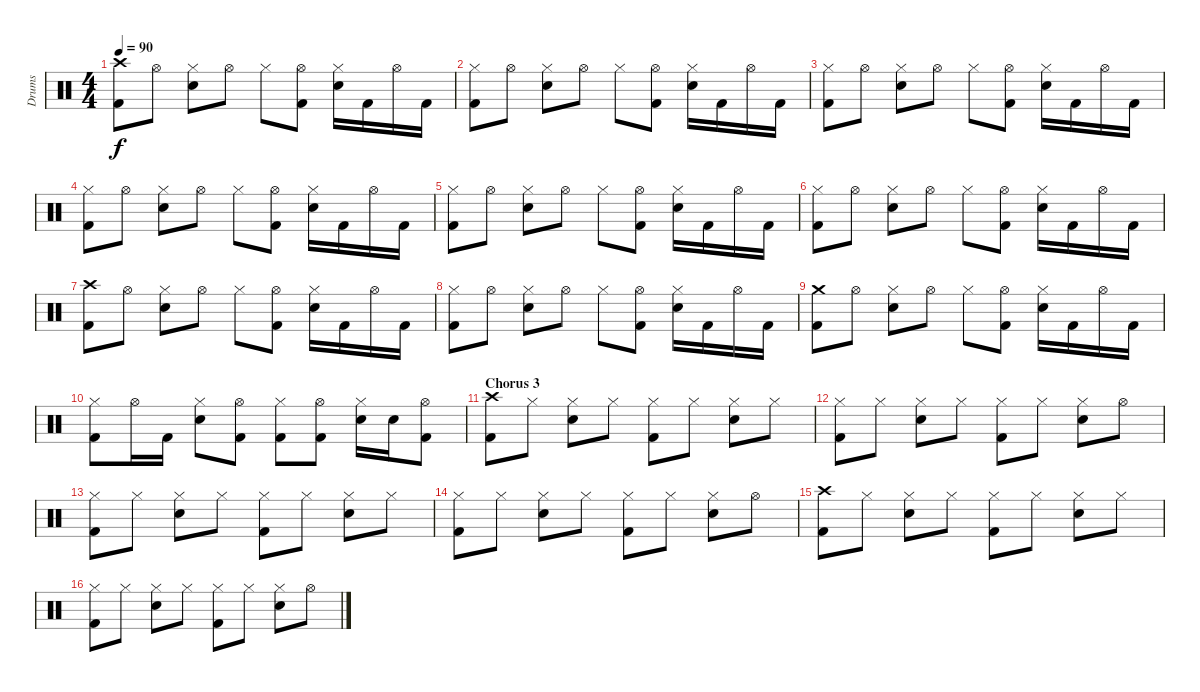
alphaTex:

\track ("Drums" "Drums") {instrument percussion}
\staff {score}
\articulation defaults
\ts (4 4)
\tempo 90
\clef neutral
\ks c
("Crash high (hit)" "Kick (hit) 2").8{dy f} "Hi-Hat (open)".8 ("Hi-Hat (closed)" "Electric Snare (hit)").8 "Hi-Hat (open)".8 "Hi-Hat (closed)".8 ("Hi-Hat (open)" "Kick (hit) 2").8 ("Hi-Hat (closed)" "Electric Snare (hit)").16 "Kick (hit) 2".16 "Hi-Hat (open)".16 "Kick (hit) 2".16 |
("Hi-Hat (closed)" "Kick (hit) 2").8 "Hi-Hat (open)".8 ("Hi-Hat (closed)" "Electric Snare (hit)").8 "Hi-Hat (open)".8 "Hi-Hat (closed)".8 ("Hi-Hat (open)" "Kick (hit) 2").8 ("Hi-Hat (closed)" "Electric Snare (hit)").16 "Kick (hit) 2".16 "Hi-Hat (open)".16 "Kick (hit) 2".16 |
("Hi-Hat (closed)" "Kick (hit) 2").8 "Hi-Hat (open)".8 ("Hi-Hat (closed)" "Electric Snare (hit)").8 "Hi-Hat (open)".8 "Hi-Hat (closed)".8 ("Hi-Hat (open)" "Kick (hit) 2").8 ("Hi-Hat (closed)" "Electric Snare (hit)").16 "Kick (hit) 2".16 "Hi-Hat (open)".16 "Kick (hit) 2".16 |
("Hi-Hat (closed)" "Kick (hit) 2").8 "Hi-Hat (open)".8 ("Hi-Hat (closed)" "Electric Snare (hit)").8 "Hi-Hat (open)".8 "Hi-Hat (closed)".8 ("Hi-Hat (open)" "Kick (hit) 2").8 ("Hi-Hat (closed)" "Electric Snare (hit)").16 "Kick (hit) 2".16 "Hi-Hat (open)".16 "Kick (hit) 2".16 |
("Hi-Hat (closed)" "Kick (hit) 2").8 "Hi-Hat (open)".8 ("Hi-Hat (closed)" "Electric Snare (hit)").8 "Hi-Hat (open)".8 "Hi-Hat (closed)".8 ("Hi-Hat (open)" "Kick (hit) 2").8 ("Hi-Hat (closed)" "Electric Snare (hit)").16 "Kick (hit) 2".16 "Hi-Hat (open)".16 "Kick (hit) 2".16 |
("Hi-Hat (closed)" "Kick (hit) 2").8 "Hi-Hat (open)".8 ("Hi-Hat (closed)" "Electric Snare (hit)").8 "Hi-Hat (open)".8 "Hi-Hat (closed)".8 ("Hi-Hat (open)" "Kick (hit) 2").8 ("Hi-Hat (closed)" "Electric Snare (hit)").16 "Kick (hit) 2".16 "Hi-Hat (open)".16 "Kick (hit) 2".16 |
("Crash high (hit)" "Kick (hit) 2").8 "Hi-Hat (open)".8 ("Hi-Hat (closed)" "Electric Snare (hit)").8 "Hi-Hat (open)".8 "Hi-Hat (closed)".8 ("Hi-Hat (open)" "Kick (hit) 2").8 ("Hi-Hat (closed)" "Electric Snare (hit)").16 "Kick (hit) 2".16 "Hi-Hat (open)".16 "Kick (hit) 2".16 |
("Hi-Hat (closed)" "Kick (hit) 2").8 "Hi-Hat (open)".8 ("Hi-Hat (closed)" "Electric Snare (hit)").8 "Hi-Hat (open)".8 "Hi-Hat (closed)".8 ("Hi-Hat (open)" "Kick (hit) 2").8 ("Hi-Hat (closed)" "Electric Snare (hit)").16 "Kick (hit) 2".16 "Hi-Hat (open)".16 "Kick (hit) 2".16 |
("Crash medium (hit)" "Kick (hit) 2").8 "Hi-Hat (open)".8 ("Hi-Hat (closed)" "Electric Snare (hit)").8 "Hi-Hat (open)".8 "Hi-Hat (closed)".8 ("Hi-Hat (open)" "Kick (hit) 2").8 ("Hi-Hat (closed)" "Electric Snare (hit)").16 "Kick (hit) 2".16 "Hi-Hat (open)".16 "Kick (hit) 2".16 |
("Hi-Hat (closed)" "Kick (hit) 2").8 "Hi-Hat (open)".16 "Kick (hit) 2".16 ("Hi-Hat (closed)" "Electric Snare (hit)").8 ("Hi-Hat (open)" "Kick (hit) 2").8 ("Hi-Hat (closed)" "Kick (hit) 2").8 ("Hi-Hat (open)" "Kick (hit) 2").8 ("Hi-Hat (closed)" "Electric Snare (hit)").16 "Electric Snare (hit)".16 ("Hi-Hat (open)" "Kick (hit) 2").8 |
\section ("" "Chorus 3")
("Crash high (hit)" "Kick (hit) 2").8 "Hi-Hat (closed)".8 ("Hi-Hat (closed)" "Electric Snare (hit)").8 "Hi-Hat (closed)".8 ("Hi-Hat (closed)" "Kick (hit) 2").8 "Hi-Hat (closed)".8 ("Hi-Hat (closed)" "Electric Snare (hit)").8 "Hi-Hat (closed)".8 |
("Hi-Hat (closed)" "Kick (hit) 2").8 "Hi-Hat (closed)".8 ("Hi-Hat (closed)" "Electric Snare (hit)").8 "Hi-Hat (closed)".8 ("Hi-Hat (closed)" "Kick (hit) 2").8 "Hi-Hat (closed)".8 ("Hi-Hat (closed)" "Electric Snare (hit)").8 "Hi-Hat (open)".8 |
("Hi-Hat (closed)" "Kick (hit) 2").8 "Hi-Hat (closed)".8 ("Hi-Hat (closed)" "Electric Snare (hit)").8 "Hi-Hat (closed)".8 ("Hi-Hat (closed)" "Kick (hit) 2").8 "Hi-Hat (closed)".8 ("Hi-Hat (closed)" "Electric Snare (hit)").8 "Hi-Hat (closed)".8 |
("Hi-Hat (closed)" "Kick (hit) 2").8 "Hi-Hat (closed)".8 ("Hi-Hat (closed)" "Electric Snare (hit)").8 "Hi-Hat (closed)".8 ("Hi-Hat (closed)" "Kick (hit) 2").8 "Hi-Hat (closed)".8 ("Hi-Hat (closed)" "Electric Snare (hit)").8 "Hi-Hat (open)".8 |
("Crash high (hit)" "Kick (hit) 2").8 "Hi-Hat (closed)".8 ("Hi-Hat (closed)" "Electric Snare (hit)").8 "Hi-Hat (closed)".8 ("Hi-Hat (closed)" "Kick (hit) 2").8 "Hi-Hat (closed)".8 ("Hi-Hat (closed)" "Electric Snare (hit)").8 "Hi-Hat (closed)".8 |
("Hi-Hat (closed)" "Kick (hit) 2").8 "Hi-Hat (closed)".8 ("Hi-Hat (closed)" "Electric Snare (hit)").8 "Hi-Hat (closed)".8 ("Hi-Hat (closed)" "Kick (hit) 2").8 "Hi-Hat (closed)".8 ("Hi-Hat (closed)" "Electric Snare (hit)").8 "Hi-Hat (open)".8
